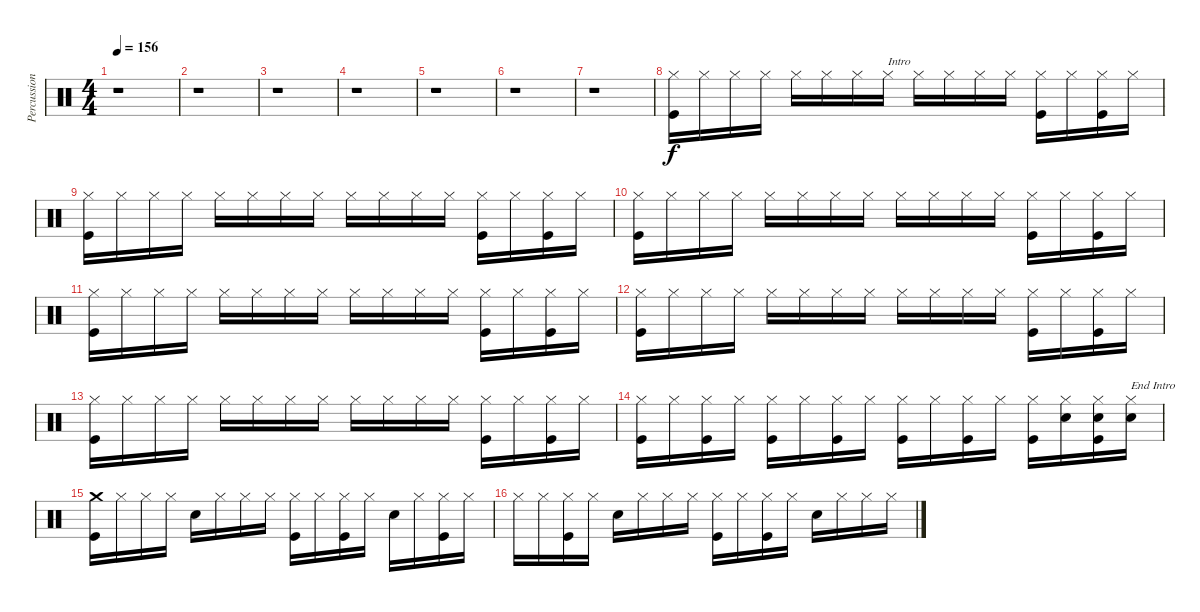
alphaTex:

\track ("Percussion" "Percussion") {instrument percussion}
\staff {score}
\articulation defaults
\ts (4 4)
\tempo 156
\clef neutral
\ks c
r.1{dy f} |
r.1 |
r.1 |
r.1 |
r.1 |
r.1 |
r.1 |
("Kick (hit)" "Hi-Hat (closed)").16 "Hi-Hat (closed)".16 "Hi-Hat (closed)".16 "Hi-Hat (closed)".16 "Hi-Hat (closed)".16 "Hi-Hat (closed)".16 "Hi-Hat (closed)".16 "Hi-Hat (closed)".16{txt "Intro"} "Hi-Hat (closed)".16 "Hi-Hat (closed)".16 "Hi-Hat (closed)".16 "Hi-Hat (closed)".16 ("Kick (hit)" "Hi-Hat (closed)").16 "Hi-Hat (closed)".16 ("Kick (hit)" "Hi-Hat (closed)").16 "Hi-Hat (closed)".16 |
("Kick (hit)" "Hi-Hat (closed)").16 "Hi-Hat (closed)".16 "Hi-Hat (closed)".16 "Hi-Hat (closed)".16 "Hi-Hat (closed)".16 "Hi-Hat (closed)".16 "Hi-Hat (closed)".16 "Hi-Hat (closed)".16 "Hi-Hat (closed)".16 "Hi-Hat (closed)".16 "Hi-Hat (closed)".16 "Hi-Hat (closed)".16 ("Kick (hit)" "Hi-Hat (closed)").16 "Hi-Hat (closed)".16 ("Kick (hit)" "Hi-Hat (closed)").16 "Hi-Hat (closed)".16 |
("Kick (hit)" "Hi-Hat (closed)").16 "Hi-Hat (closed)".16 "Hi-Hat (closed)".16 "Hi-Hat (closed)".16 "Hi-Hat (closed)".16 "Hi-Hat (closed)".16 "Hi-Hat (closed)".16 "Hi-Hat (closed)".16 "Hi-Hat (closed)".16 "Hi-Hat (closed)".16 "Hi-Hat (closed)".16 "Hi-Hat (closed)".16 ("Kick (hit)" "Hi-Hat (closed)").16 "Hi-Hat (closed)".16 ("Kick (hit)" "Hi-Hat (closed)").16 "Hi-Hat (closed)".16 |
("Kick (hit)" "Hi-Hat (closed)").16 "Hi-Hat (closed)".16 "Hi-Hat (closed)".16 "Hi-Hat (closed)".16 "Hi-Hat (closed)".16 "Hi-Hat (closed)".16 "Hi-Hat (closed)".16 "Hi-Hat (closed)".16 "Hi-Hat (closed)".16 "Hi-Hat (closed)".16 "Hi-Hat (closed)".16 "Hi-Hat (closed)".16 ("Kick (hit)" "Hi-Hat (closed)").16 "Hi-Hat (closed)".16 ("Kick (hit)" "Hi-Hat (closed)").16 "Hi-Hat (closed)".16 |
("Kick (hit)" "Hi-Hat (closed)").16 "Hi-Hat (closed)".16 "Hi-Hat (closed)".16 "Hi-Hat (closed)".16 "Hi-Hat (closed)".16 "Hi-Hat (closed)".16 "Hi-Hat (closed)".16 "Hi-Hat (closed)".16 "Hi-Hat (closed)".16 "Hi-Hat (closed)".16 "Hi-Hat (closed)".16 "Hi-Hat (closed)".16 ("Kick (hit)" "Hi-Hat (closed)").16 "Hi-Hat (closed)".16 ("Kick (hit)" "Hi-Hat (closed)").16 "Hi-Hat (closed)".16 |
("Kick (hit)" "Hi-Hat (closed)").16 "Hi-Hat (closed)".16 "Hi-Hat (closed)".16 "Hi-Hat (closed)".16 "Hi-Hat (closed)".16 "Hi-Hat (closed)".16 "Hi-Hat (closed)".16 "Hi-Hat (closed)".16 "Hi-Hat (closed)".16 "Hi-Hat (closed)".16 "Hi-Hat (closed)".16 "Hi-Hat (closed)".16 ("Kick (hit)" "Hi-Hat (closed)").16 "Hi-Hat (closed)".16 ("Kick (hit)" "Hi-Hat (closed)").16 "Hi-Hat (closed)".16 |
("Kick (hit)" "Hi-Hat (closed)").16 "Hi-Hat (closed)".16 ("Kick (hit)" "Hi-Hat (closed)").16 "Hi-Hat (closed)".16 ("Kick (hit)" "Hi-Hat (closed)").16 "Hi-Hat (closed)".16 ("Kick (hit)" "Hi-Hat (closed)").16 "Hi-Hat (closed)".16 ("Kick (hit)" "Hi-Hat (closed)").16 "Hi-Hat (closed)".16 ("Kick (hit)" "Hi-Hat (closed)").16 "Hi-Hat (closed)".16 ("Kick (hit)" "Hi-Hat (closed)").16 ("Hi-Hat (closed)" "Snare (hit) 2").16 ("Kick (hit)" "Hi-Hat (closed)" "Snare (hit) 2").16 ("Hi-Hat (closed)" "Snare (hit) 2").16{txt "End Intro"} |
("Kick (hit)" "Crash medium (hit)").16 "Hi-Hat (closed)".16 "Hi-Hat (closed)".16 "Hi-Hat (closed)".16 "Snare (hit) 2".16 "Hi-Hat (closed)".16 "Hi-Hat (closed)".16 "Hi-Hat (closed)".16 ("Kick (hit)" "Hi-Hat (closed)").16 "Hi-Hat (closed)".16 ("Kick (hit)" "Hi-Hat (closed)").16 "Hi-Hat (closed)".16 "Snare (hit) 2".16 "Hi-Hat (closed)".16 ("Kick (hit)" "Hi-Hat (closed)").16 "Hi-Hat (closed)".16 |
"Hi-Hat (closed)".16 "Hi-Hat (closed)".16 ("Kick (hit)" "Hi-Hat (closed)").16 "Hi-Hat (closed)".16 "Snare (hit) 2".16 "Hi-Hat (closed)".16 "Hi-Hat (closed)".16 "Hi-Hat (closed)".16 ("Kick (hit)" "Hi-Hat (closed)").16 "Hi-Hat (closed)".16 ("Kick (hit)" "Hi-Hat (closed)").16 "Hi-Hat (closed)".16 "Snare (hit) 2".16 "Hi-Hat (closed)".16 "Hi-Hat (closed)".16 "Hi-Hat (closed)".16
